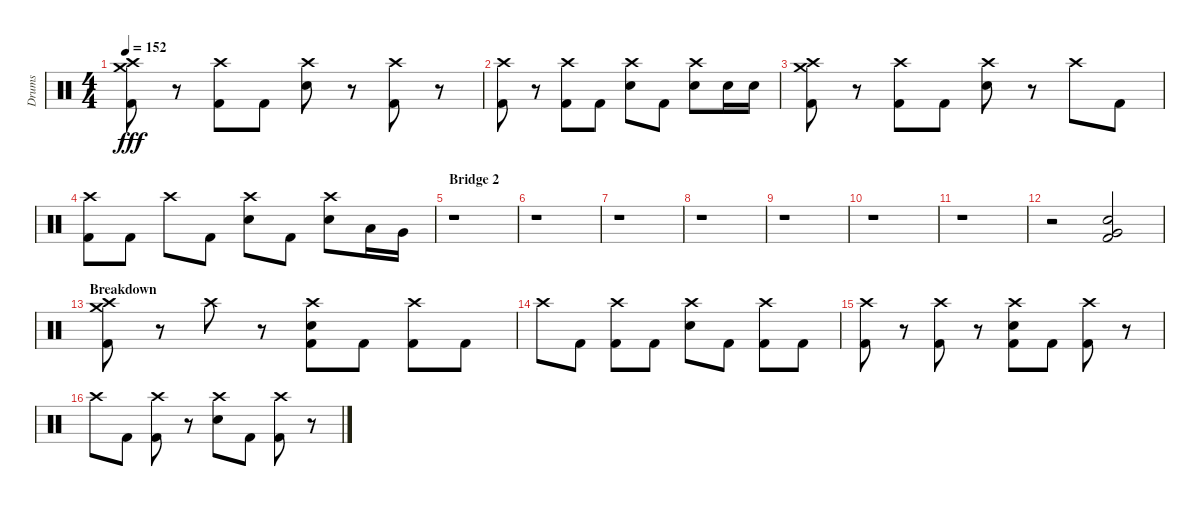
\track ("Drums" "Drums") {instrument percussion}
\staff {score}
\articulation defaults
\ts (4 4)
\tempo 152
\clef neutral
\ks c
("Crash medium (hit)" "Crash high (hit)" "Kick (hit) 2").8{dy fff} r.8 ("Crash high (hit)" "Kick (hit) 2").8 "Kick (hit) 2".8 ("Crash high (hit)" "Snare (hit) 2").8 r.8 ("Crash high (hit)" "Kick (hit) 2").8 r.8 |
("Crash high (hit)" "Kick (hit) 2").8 r.8 ("Crash high (hit)" "Kick (hit) 2").8 "Kick (hit) 2".8 ("Crash high (hit)" "Snare (hit) 2").8 "Kick (hit) 2".8 ("Crash high (hit)" "Snare (hit) 2").8 "Snare (hit) 2".16 "Snare (hit) 2".16 |
("Crash medium (hit)" "Crash high (hit)" "Kick (hit) 2").8 r.8 ("Crash high (hit)" "Kick (hit) 2").8 "Kick (hit) 2".8 ("Crash high (hit)" "Snare (hit) 2").8 r.8 "Crash high (hit)".8 "Kick (hit) 2".8 |
("Crash high (hit)" "Kick (hit) 2").8 "Kick (hit) 2".8 "Crash high (hit)".8 "Kick (hit) 2".8 ("Crash high (hit)" "Snare (hit) 2").8 "Kick (hit) 2".8 ("Crash high (hit)" "Snare (hit) 2").8 "Low Tom (hit)".16 "Very Low Tom (hit)".16 |
\section ("" "Bridge 2")
r.1 |
r.1 |
r.1 |
r.1 |
r.1 |
r.1 |
r.1 |
r.2 ("Very Low Tom (hit)" "Snare (hit) 2" "Kick (hit) 2").2 |
\section ("" "Breakdown")
("Crash medium (hit)" "Crash high (hit)" "Kick (hit) 2").8 r.8 "Crash high (hit)".8 r.8 ("Crash high (hit)" "Snare (hit) 2" "Kick (hit) 2").8 "Kick (hit) 2".8 ("Crash high (hit)" "Kick (hit) 2").8 "Kick (hit) 2".8 |
"Crash high (hit)".8 "Kick (hit) 2".8 ("Crash high (hit)" "Kick (hit) 2").8 "Kick (hit) 2".8 ("Crash high (hit)" "Snare (hit) 2").8 "Kick (hit) 2".8 ("Crash high (hit)" "Kick (hit) 2").8 "Kick (hit) 2".8 |
("Crash high (hit)" "Kick (hit) 2").8 r.8 ("Crash high (hit)" "Kick (hit) 2").8 r.8 ("Crash high (hit)" "Snare (hit) 2" "Kick (hit) 2").8 "Kick (hit) 2".8 ("Crash high (hit)" "Kick (hit) 2").8 r.8 |
"Crash high (hit)".8 "Kick (hit) 2".8 ("Crash high (hit)" "Kick (hit) 2").8 r.8 ("Crash high (hit)" "Snare (hit) 2").8 "Kick (hit) 2".8 ("Crash high (hit)" "Kick (hit) 2").8 r.8
